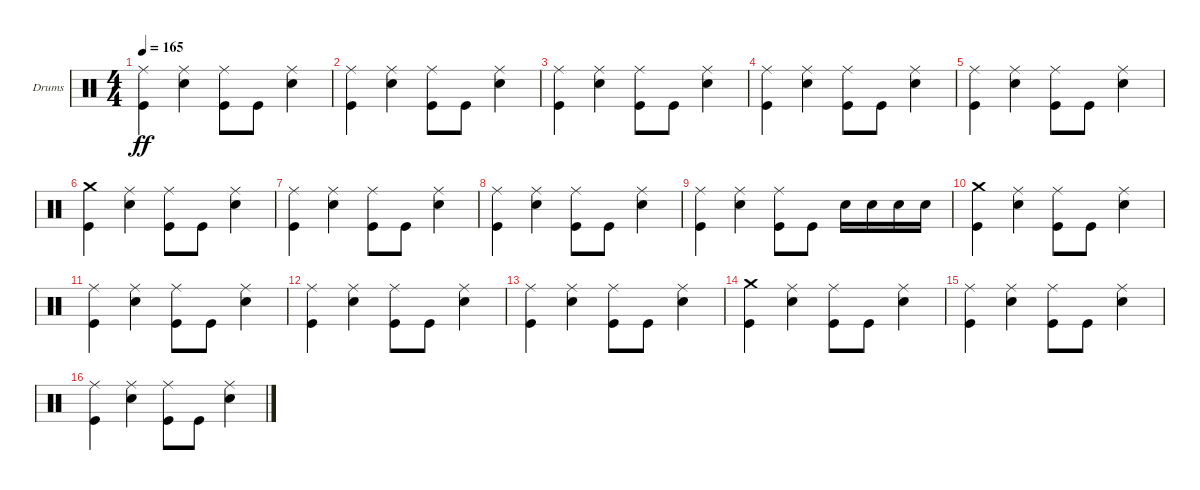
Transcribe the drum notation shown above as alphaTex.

\bracketExtendMode groupsimilarinstruments
\firstSystemTrackNameOrientation horizontal
\otherSystemsTrackNameOrientation horizontal
\track ("Drumkit" "Drums") {instrument percussion}
\staff {score}
\articulation defaults
\ts (4 4)
\tempo 165
\clef neutral
\ks c
("Kick (hit)" "Ride (middle)").4{dy ff} ("Snare (hit) 2" "Ride (middle)").4 ("Kick (hit)" "Ride (middle)").8 "Kick (hit)".8 ("Ride (middle)" "Snare (hit) 2").4 |
("Kick (hit)" "Ride (middle)").4 ("Ride (middle)" "Snare (hit) 2").4 ("Ride (middle)" "Kick (hit)").8 "Kick (hit)".8 ("Ride (middle)" "Snare (hit) 2").4 |
("Kick (hit)" "Ride (middle)").4 ("Ride (middle)" "Snare (hit) 2").4 ("Ride (middle)" "Kick (hit)").8 "Kick (hit)".8 ("Ride (middle)" "Snare (hit) 2").4 |
("Kick (hit)" "Ride (middle)").4 ("Snare (hit) 2" "Ride (middle)").4 ("Kick (hit)" "Ride (middle)").8 "Kick (hit)".8 ("Ride (middle)" "Snare (hit) 2").4 |
("Kick (hit)" "Ride (middle)").4 ("Snare (hit) 2" "Ride (middle)").4 ("Kick (hit)" "Ride (middle)").8 "Kick (hit)".8 ("Ride (middle)" "Snare (hit) 2").4 |
("Kick (hit)" "Crash medium (hit)").4 ("Ride (middle)" "Snare (hit) 2").4 ("Ride (middle)" "Kick (hit)").8 "Kick (hit)".8 ("Ride (middle)" "Snare (hit) 2").4 |
("Kick (hit)" "Ride (middle)").4 ("Ride (middle)" "Snare (hit) 2").4 ("Ride (middle)" "Kick (hit)").8 "Kick (hit)".8 ("Ride (middle)" "Snare (hit) 2").4 |
("Kick (hit)" "Ride (middle)").4 ("Snare (hit) 2" "Ride (middle)").4 ("Kick (hit)" "Ride (middle)").8 "Kick (hit)".8 ("Ride (middle)" "Snare (hit) 2").4 |
("Kick (hit)" "Ride (middle)").4 ("Snare (hit) 2" "Ride (middle)").4 ("Kick (hit)" "Ride (middle)").8 "Kick (hit)".8 "Snare (hit) 2".16 "Snare (hit) 2".16 "Snare (hit) 2".16 "Snare (hit) 2".16 |
("Kick (hit)" "Crash medium (hit)").4 ("Ride (middle)" "Snare (hit) 2").4 ("Ride (middle)" "Kick (hit)").8 "Kick (hit)".8 ("Ride (middle)" "Snare (hit) 2").4 |
("Kick (hit)" "Ride (middle)").4 ("Ride (middle)" "Snare (hit) 2").4 ("Ride (middle)" "Kick (hit)").8 "Kick (hit)".8 ("Ride (middle)" "Snare (hit) 2").4 |
("Kick (hit)" "Ride (middle)").4 ("Snare (hit) 2" "Ride (middle)").4 ("Kick (hit)" "Ride (middle)").8 "Kick (hit)".8 ("Ride (middle)" "Snare (hit) 2").4 |
("Kick (hit)" "Ride (middle)").4 ("Snare (hit) 2" "Ride (middle)").4 ("Kick (hit)" "Ride (middle)").8 "Kick (hit)".8 ("Ride (middle)" "Snare (hit) 2").4 |
("Kick (hit)" "Crash medium (hit)").4 ("Ride (middle)" "Snare (hit) 2").4 ("Ride (middle)" "Kick (hit)").8 "Kick (hit)".8 ("Ride (middle)" "Snare (hit) 2").4 |
("Kick (hit)" "Ride (middle)").4 ("Ride (middle)" "Snare (hit) 2").4 ("Ride (middle)" "Kick (hit)").8 "Kick (hit)".8 ("Ride (middle)" "Snare (hit) 2").4 |
("Kick (hit)" "Ride (middle)").4 ("Snare (hit) 2" "Ride (middle)").4 ("Kick (hit)" "Ride (middle)").8 "Kick (hit)".8 ("Ride (middle)" "Snare (hit) 2").4
